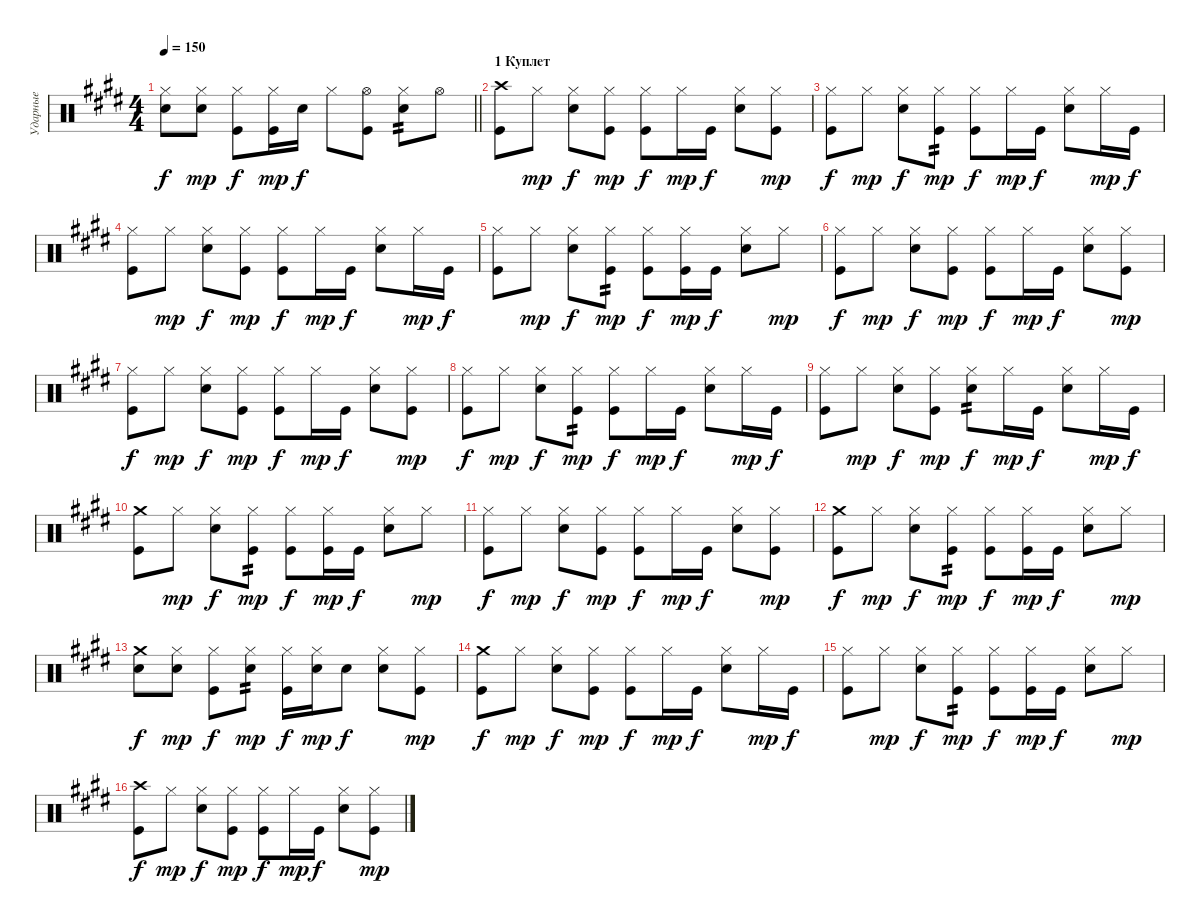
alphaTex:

\track ("Ударные" "Ударные") {instrument percussion}
\staff {score}
\articulation defaults
\ts (4 4)
\tempo 150
\clef neutral
\barLineRight lightlight
\ks c#minor
("Hi-Hat (closed)" "Snare (hit) 2").8{dy f} ("Hi-Hat (closed)" "Snare (hit) 2").8{dy mp} ("Hi-Hat (closed)" "Kick (hit)").8{dy f} ("Hi-Hat (closed)" "Kick (hit)").16{dy mp} "Snare (hit) 2".16{dy f} "Hi-Hat (closed)".8 ("Hi-Hat (open)" "Kick (hit)").8 ("Hi-Hat (closed)" "Snare (hit) 2").8{tp 2} "Hi-Hat (open)".8 |
\section ("" "1 Куплет")
("Crash high (hit)" "Kick (hit)").8 "Hi-Hat (closed)".8{dy mp} ("Hi-Hat (closed)" "Snare (hit) 2").8{dy f} ("Hi-Hat (closed)" "Kick (hit)").8{dy mp} ("Hi-Hat (closed)" "Kick (hit)").8{dy f} "Hi-Hat (closed)".16{dy mp} "Kick (hit)".16{dy f} ("Hi-Hat (closed)" "Snare (hit) 2").8 ("Hi-Hat (closed)" "Kick (hit)").8{dy mp} |
("Hi-Hat (closed)" "Kick (hit)").8{dy f} "Hi-Hat (closed)".8{dy mp} ("Hi-Hat (closed)" "Snare (hit) 2").8{dy f} ("Hi-Hat (closed)" "Kick (hit)").8{tp 2 dy mp} ("Hi-Hat (closed)" "Kick (hit)").8{dy f} "Hi-Hat (closed)".16{dy mp} "Kick (hit)".16{dy f} ("Hi-Hat (closed)" "Snare (hit) 2").8 "Hi-Hat (closed)".16{dy mp} "Kick (hit)".16{dy f} |
("Hi-Hat (closed)" "Kick (hit)").8 "Hi-Hat (closed)".8{dy mp} ("Hi-Hat (closed)" "Snare (hit) 2").8{dy f} ("Hi-Hat (closed)" "Kick (hit)").8{dy mp} ("Hi-Hat (closed)" "Kick (hit)").8{dy f} "Hi-Hat (closed)".16{dy mp} "Kick (hit)".16{dy f} ("Hi-Hat (closed)" "Snare (hit) 2").8 "Hi-Hat (closed)".16{dy mp} "Kick (hit)".16{dy f} |
("Hi-Hat (closed)" "Kick (hit)").8 "Hi-Hat (closed)".8{dy mp} ("Hi-Hat (closed)" "Snare (hit) 2").8{dy f} ("Hi-Hat (closed)" "Kick (hit)").8{tp 2 dy mp} ("Hi-Hat (closed)" "Kick (hit)").8{dy f} ("Hi-Hat (closed)" "Kick (hit)").16{dy mp} "Kick (hit)".16{dy f} ("Hi-Hat (closed)" "Snare (hit) 2").8 "Hi-Hat (closed)".8{dy mp} |
("Hi-Hat (closed)" "Kick (hit)").8{dy f} "Hi-Hat (closed)".8{dy mp} ("Hi-Hat (closed)" "Snare (hit) 2").8{dy f} ("Hi-Hat (closed)" "Kick (hit)").8{dy mp} ("Hi-Hat (closed)" "Kick (hit)").8{dy f} "Hi-Hat (closed)".16{dy mp} "Kick (hit)".16{dy f} ("Hi-Hat (closed)" "Snare (hit) 2").8 ("Hi-Hat (closed)" "Kick (hit)").8{dy mp} |
("Hi-Hat (closed)" "Kick (hit)").8{dy f} "Hi-Hat (closed)".8{dy mp} ("Hi-Hat (closed)" "Snare (hit) 2").8{dy f} ("Hi-Hat (closed)" "Kick (hit)").8{dy mp} ("Hi-Hat (closed)" "Kick (hit)").8{dy f} "Hi-Hat (closed)".16{dy mp} "Kick (hit)".16{dy f} ("Hi-Hat (closed)" "Snare (hit) 2").8 ("Hi-Hat (closed)" "Kick (hit)").8{dy mp} |
("Hi-Hat (closed)" "Kick (hit)").8{dy f} "Hi-Hat (closed)".8{dy mp} ("Hi-Hat (closed)" "Snare (hit) 2").8{dy f} ("Hi-Hat (closed)" "Kick (hit)").8{tp 2 dy mp} ("Hi-Hat (closed)" "Kick (hit)").8{dy f} "Hi-Hat (closed)".16{dy mp} "Kick (hit)".16{dy f} ("Hi-Hat (closed)" "Snare (hit) 2").8 "Hi-Hat (closed)".16{dy mp} "Kick (hit)".16{dy f} |
("Hi-Hat (closed)" "Kick (hit)").8 "Hi-Hat (closed)".8{dy mp} ("Hi-Hat (closed)" "Snare (hit) 2").8{dy f} ("Hi-Hat (closed)" "Kick (hit)").8{dy mp} ("Hi-Hat (closed)" "Snare (hit) 2").8{tp 2 dy f} "Hi-Hat (closed)".16{dy mp} "Kick (hit)".16{dy f} ("Hi-Hat (closed)" "Snare (hit) 2").8 "Hi-Hat (closed)".16{dy mp} "Kick (hit)".16{dy f} |
("Crash medium (hit)" "Kick (hit)").8 "Hi-Hat (closed)".8{dy mp} ("Hi-Hat (closed)" "Snare (hit) 2").8{dy f} ("Hi-Hat (closed)" "Kick (hit)").8{tp 2 dy mp} ("Hi-Hat (closed)" "Kick (hit)").8{dy f} ("Hi-Hat (closed)" "Kick (hit)").16{dy mp} "Kick (hit)".16{dy f} ("Hi-Hat (closed)" "Snare (hit) 2").8 "Hi-Hat (closed)".8{dy mp} |
("Hi-Hat (closed)" "Kick (hit)").8{dy f} "Hi-Hat (closed)".8{dy mp} ("Hi-Hat (closed)" "Snare (hit) 2").8{dy f} ("Hi-Hat (closed)" "Kick (hit)").8{dy mp} ("Hi-Hat (closed)" "Kick (hit)").8{dy f} "Hi-Hat (closed)".16{dy mp} "Kick (hit)".16{dy f} ("Hi-Hat (closed)" "Snare (hit) 2").8 ("Hi-Hat (closed)" "Kick (hit)").8{dy mp} |
("Crash medium (hit)" "Kick (hit)").8{dy f} "Hi-Hat (closed)".8{dy mp} ("Hi-Hat (closed)" "Snare (hit) 2").8{dy f} ("Hi-Hat (closed)" "Kick (hit)").8{tp 2 dy mp} ("Hi-Hat (closed)" "Kick (hit)").8{dy f} ("Hi-Hat (closed)" "Kick (hit)").16{dy mp} "Kick (hit)".16{dy f} ("Hi-Hat (closed)" "Snare (hit) 2").8 "Hi-Hat (closed)".8{dy mp} |
("Crash medium (hit)" "Snare (hit) 2").8{dy f} ("Hi-Hat (closed)" "Snare (hit) 2").8{dy mp} ("Hi-Hat (closed)" "Kick (hit)").8{dy f} ("Hi-Hat (closed)" "Snare (hit) 2").8{tp 2 dy mp} ("Hi-Hat (closed)" "Kick (hit)").16{dy f} ("Hi-Hat (closed)" "Snare (hit) 2").16{dy mp} "Snare (hit) 2".8{dy f} ("Hi-Hat (closed)" "Snare (hit) 2").8 ("Hi-Hat (closed)" "Kick (hit)").8{dy mp} |
("Crash medium (hit)" "Kick (hit)").8{dy f} "Hi-Hat (closed)".8{dy mp} ("Hi-Hat (closed)" "Snare (hit) 2").8{dy f} ("Hi-Hat (closed)" "Kick (hit)").8{dy mp} ("Hi-Hat (closed)" "Kick (hit)").8{dy f} "Hi-Hat (closed)".16{dy mp} "Kick (hit)".16{dy f} ("Hi-Hat (closed)" "Snare (hit) 2").8 "Hi-Hat (closed)".16{dy mp} "Kick (hit)".16{dy f} |
("Hi-Hat (closed)" "Kick (hit)").8 "Hi-Hat (closed)".8{dy mp} ("Hi-Hat (closed)" "Snare (hit) 2").8{dy f} ("Hi-Hat (closed)" "Kick (hit)").8{tp 2 dy mp} ("Hi-Hat (closed)" "Kick (hit)").8{dy f} ("Hi-Hat (closed)" "Kick (hit)").16{dy mp} "Kick (hit)".16{dy f} ("Hi-Hat (closed)" "Snare (hit) 2").8 "Hi-Hat (closed)".8{dy mp} |
("Crash high (hit)" "Kick (hit)").8{dy f} "Hi-Hat (closed)".8{dy mp} ("Hi-Hat (closed)" "Snare (hit) 2").8{dy f} ("Hi-Hat (closed)" "Kick (hit)").8{dy mp} ("Hi-Hat (closed)" "Kick (hit)").8{dy f} "Hi-Hat (closed)".16{dy mp} "Kick (hit)".16{dy f} ("Hi-Hat (closed)" "Snare (hit) 2").8 ("Hi-Hat (closed)" "Kick (hit)").8{dy mp}
